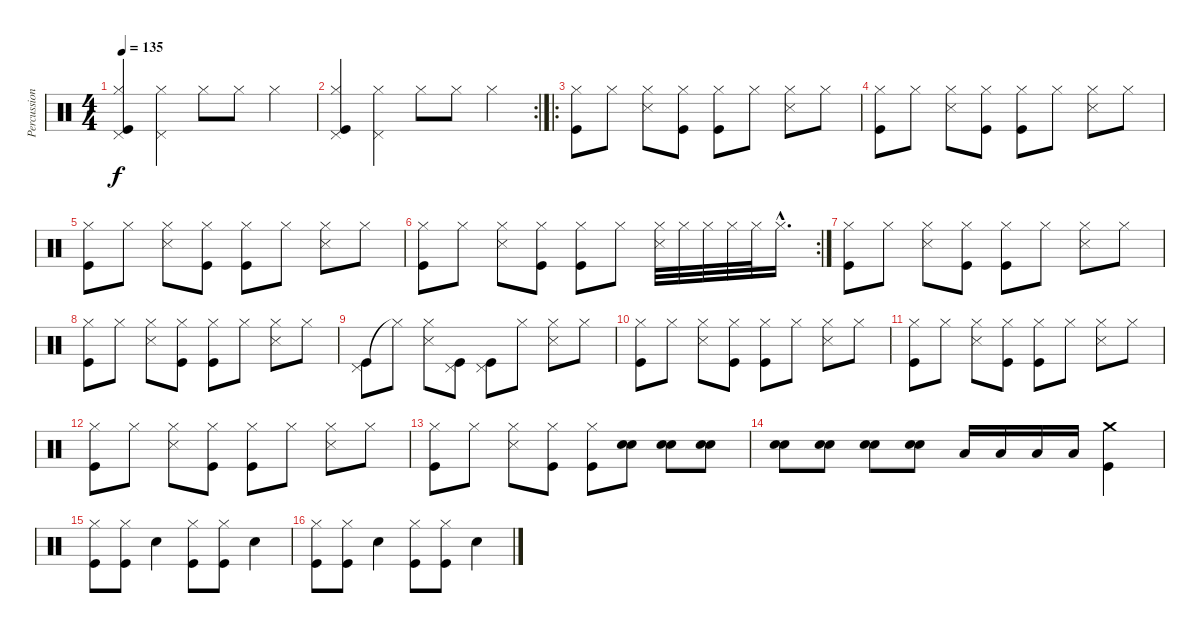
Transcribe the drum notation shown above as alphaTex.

\track ("Percussion" "Percussion") {instrument percussion}
\staff {score}
\articulation defaults
\ts (4 4)
\tempo 135
\clef neutral
\ks c
("Pedal Hi-Hat (hit)" "Hi-Hat (closed)" "Kick (hit)").4{dy f} ("Pedal Hi-Hat (hit)" "Hi-Hat (closed)").4 "Hi-Hat (closed)".8 "Hi-Hat (closed)".8 "Hi-Hat (closed)".4 |
\rc 2
("Pedal Hi-Hat (hit)" "Hi-Hat (closed)" "Kick (hit)").4 ("Pedal Hi-Hat (hit)" "Hi-Hat (closed)").4 "Hi-Hat (closed)".8 "Hi-Hat (closed)".8 "Hi-Hat (closed)".4 |
\ro
("Hi-Hat (closed)" "Kick (hit)").8 "Hi-Hat (closed)".8 ("Hi-Hat (closed)" "Snare (side stick) 3").8 ("Hi-Hat (closed)" "Kick (hit)").8 ("Hi-Hat (closed)" "Kick (hit)").8 "Hi-Hat (closed)".8 ("Hi-Hat (closed)" "Snare (side stick) 3").8 "Hi-Hat (closed)".8 |
("Hi-Hat (closed)" "Kick (hit)").8 "Hi-Hat (closed)".8 ("Hi-Hat (closed)" "Snare (side stick) 3").8 ("Hi-Hat (closed)" "Kick (hit)").8 ("Hi-Hat (closed)" "Kick (hit)").8 "Hi-Hat (closed)".8 ("Hi-Hat (closed)" "Snare (side stick) 3").8 "Hi-Hat (closed)".8 |
("Hi-Hat (closed)" "Kick (hit)").8 "Hi-Hat (closed)".8 ("Hi-Hat (closed)" "Snare (side stick) 3").8 ("Hi-Hat (closed)" "Kick (hit)").8 ("Hi-Hat (closed)" "Kick (hit)").8 "Hi-Hat (closed)".8 ("Hi-Hat (closed)" "Snare (side stick) 3").8 "Hi-Hat (closed)".8 |
\rc 2
("Hi-Hat (closed)" "Kick (hit)").8 "Hi-Hat (closed)".8 ("Hi-Hat (closed)" "Snare (side stick) 3").8 ("Hi-Hat (closed)" "Kick (hit)").8 ("Hi-Hat (closed)" "Kick (hit)").8 "Hi-Hat (closed)".8 ("Hi-Hat (closed)" "Snare (side stick) 3").32 "Hi-Hat (closed)".32 "Hi-Hat (closed)".32 "Hi-Hat (closed)".32 "Hi-Hat (closed)".32 "Hi-Hat (closed)"{hac}.16{d} |
("Hi-Hat (closed)" "Kick (hit)").8 "Hi-Hat (closed)".8 ("Hi-Hat (closed)" "Snare (side stick) 3").8 ("Hi-Hat (closed)" "Kick (hit)").8 ("Hi-Hat (closed)" "Kick (hit)").8 "Hi-Hat (closed)".8 ("Hi-Hat (closed)" "Snare (side stick) 3").8 "Hi-Hat (closed)".8 |
("Hi-Hat (closed)" "Kick (hit)").8 "Hi-Hat (closed)".8 ("Hi-Hat (closed)" "Snare (side stick) 3").8 ("Hi-Hat (closed)" "Kick (hit)").8 ("Hi-Hat (closed)" "Kick (hit)").8 "Hi-Hat (closed)".8 ("Hi-Hat (closed)" "Snare (side stick) 3").8 "Hi-Hat (closed)".8 |
("Pedal Hi-Hat (hit)" "Kick (hit)").8 "Hi-Hat (closed)"{t}.8 ("Hi-Hat (closed)" "Snare (side stick) 3").8 ("Pedal Hi-Hat (hit)" "Kick (hit)").8 ("Pedal Hi-Hat (hit)" "Kick (hit)").8 "Hi-Hat (closed)".8 ("Hi-Hat (closed)" "Snare (side stick) 3").8 "Hi-Hat (closed)".8 |
("Hi-Hat (closed)" "Kick (hit)").8 "Hi-Hat (closed)".8 ("Hi-Hat (closed)" "Snare (side stick) 3").8 ("Hi-Hat (closed)" "Kick (hit)").8 ("Hi-Hat (closed)" "Kick (hit)").8 "Hi-Hat (closed)".8 ("Hi-Hat (closed)" "Snare (side stick) 3").8 "Hi-Hat (closed)".8 |
("Hi-Hat (closed)" "Kick (hit)").8 "Hi-Hat (closed)".8 ("Hi-Hat (closed)" "Snare (side stick) 3").8 ("Hi-Hat (closed)" "Kick (hit)").8 ("Hi-Hat (closed)" "Kick (hit)").8 "Hi-Hat (closed)".8 ("Hi-Hat (closed)" "Snare (side stick) 3").8 "Hi-Hat (closed)".8 |
("Hi-Hat (closed)" "Kick (hit)").8 "Hi-Hat (closed)".8 ("Hi-Hat (closed)" "Snare (side stick) 3").8 ("Hi-Hat (closed)" "Kick (hit)").8 ("Hi-Hat (closed)" "Kick (hit)").8 "Hi-Hat (closed)".8 ("Hi-Hat (closed)" "Snare (side stick) 3").8 "Hi-Hat (closed)".8 |
("Hi-Hat (closed)" "Kick (hit)").8 "Hi-Hat (closed)".8 ("Hi-Hat (closed)" "Snare (side stick) 3").8 ("Hi-Hat (closed)" "Kick (hit)").8 ("Hi-Hat (closed)" "Kick (hit)").8 ("Snare (hit) 2" "Snare (hit) 2").8 ("Snare (hit) 2" "Snare (hit) 2").8 ("Snare (hit) 2" "Snare (hit) 2").8 |
("Snare (hit) 2" "Snare (hit) 2").8 ("Snare (hit) 2" "Snare (hit) 2").8 ("Snare (hit) 2" "Snare (hit) 2").8 ("Snare (hit) 2" "Snare (hit) 2").8 "Low Tom (hit)".16 "Low Tom (hit)".16 "Low Tom (hit)".16 "Low Tom (hit)".16 ("Crash medium (hit)" "Kick (hit)").4 |
("Hi-Hat (closed)" "Kick (hit)").8 ("Hi-Hat (closed)" "Kick (hit)").8 "Electric Snare (hit)".4 ("Hi-Hat (closed)" "Kick (hit)").8 ("Hi-Hat (closed)" "Kick (hit)").8 "Electric Snare (hit)".4 |
("Hi-Hat (closed)" "Kick (hit)").8 ("Hi-Hat (closed)" "Kick (hit)").8 "Electric Snare (hit)".4 ("Hi-Hat (closed)" "Kick (hit)").8 ("Hi-Hat (closed)" "Kick (hit)").8 "Electric Snare (hit)".4
